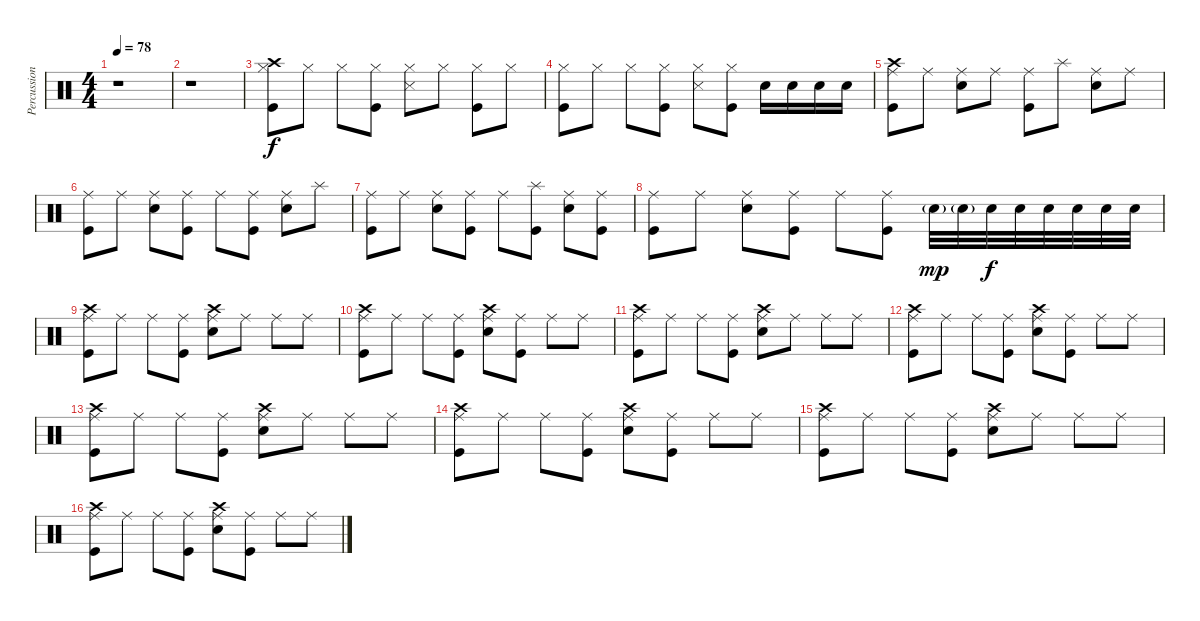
\track ("Percussion" "Percussion") {instrument percussion}
\staff {score}
\articulation defaults
\ts (4 4)
\tempo 78
\clef neutral
\ks c
r.1{dy f} |
r.1 |
("Crash high (hit)" "Hi-Hat (closed)" "Kick (hit)").8 "Hi-Hat (closed)".8 "Hi-Hat (closed)".8 ("Hi-Hat (closed)" "Kick (hit)").8 ("Hi-Hat (closed)" "Snare (side stick) 3").8 "Hi-Hat (closed)".8 ("Hi-Hat (closed)" "Kick (hit)").8 "Hi-Hat (closed)".8 |
("Hi-Hat (closed)" "Kick (hit)").8 "Hi-Hat (closed)".8 "Hi-Hat (closed)".8 ("Hi-Hat (closed)" "Kick (hit)").8 ("Hi-Hat (closed)" "Snare (side stick) 3").8 ("Hi-Hat (closed)" "Kick (hit)").8 "Snare (hit) 2".16 "Snare (hit) 2".16 "Snare (hit) 2".16 "Snare (hit) 2".16 |
("Crash high (hit)" "Ride (middle)" "Kick (hit)").8 "Ride (middle)".8 ("Ride (middle)" "Snare (hit) 2").8 "Ride (middle)".8 ("Ride (middle)" "Kick (hit)").8 "Splash (hit)".8 ("Ride (middle)" "Snare (hit) 2").8 "Ride (middle)".8 |
("Ride (middle)" "Kick (hit)").8 "Ride (middle)".8 ("Ride (middle)" "Snare (hit) 2").8 ("Ride (middle)" "Kick (hit)").8 "Ride (middle)".8 ("Ride (middle)" "Kick (hit)").8 ("Ride (middle)" "Snare (hit) 2").8 "Splash (hit)".8 |
("Ride (middle)" "Kick (hit)").8 "Ride (middle)".8 ("Ride (middle)" "Snare (hit) 2").8 ("Ride (middle)" "Kick (hit)").8 "Ride (middle)".8 ("Splash (hit)" "Kick (hit)").8 ("Ride (middle)" "Snare (hit) 2").8 ("Ride (middle)" "Kick (hit)").8 |
("Ride (middle)" "Kick (hit)").8 "Ride (middle)".8 ("Ride (middle)" "Snare (hit) 2").8 ("Ride (middle)" "Kick (hit)").8 "Ride (middle)".8 ("Ride (middle)" "Kick (hit)").8 "Snare (hit) 2"{g}.32{dy mp} "Snare (hit) 2"{g}.32 "Snare (hit) 2".32{dy f} "Snare (hit) 2".32 "Snare (hit) 2".32 "Snare (hit) 2".32 "Snare (hit) 2".32 "Snare (hit) 2".32 |
("Crash high (hit)" "Ride (middle)" "Kick (hit)").8 "Ride (middle)".8 "Ride (middle)".8 ("Ride (middle)" "Kick (hit)").8 ("Crash high (hit)" "Ride (middle)" "Snare (hit) 2").8 "Ride (middle)".8 "Ride (middle)".8 "Ride (middle)".8 |
("Crash high (hit)" "Ride (middle)" "Kick (hit)").8 "Ride (middle)".8 "Ride (middle)".8 ("Ride (middle)" "Kick (hit)").8 ("Crash high (hit)" "Ride (middle)" "Snare (hit) 2").8 ("Ride (middle)" "Kick (hit)").8 "Ride (middle)".8 "Ride (middle)".8 |
("Crash high (hit)" "Ride (middle)" "Kick (hit)").8 "Ride (middle)".8 "Ride (middle)".8 ("Ride (middle)" "Kick (hit)").8 ("Crash high (hit)" "Ride (middle)" "Snare (hit) 2").8 "Ride (middle)".8 "Ride (middle)".8 "Ride (middle)".8 |
("Crash high (hit)" "Ride (middle)" "Kick (hit)").8 "Ride (middle)".8 "Ride (middle)".8 ("Ride (middle)" "Kick (hit)").8 ("Crash high (hit)" "Ride (middle)" "Snare (hit) 2").8 ("Ride (middle)" "Kick (hit)").8 "Ride (middle)".8 "Ride (middle)".8 |
("Crash high (hit)" "Ride (middle)" "Kick (hit)").8 "Ride (middle)".8 "Ride (middle)".8 ("Ride (middle)" "Kick (hit)").8 ("Crash high (hit)" "Ride (middle)" "Snare (hit) 2").8 "Ride (middle)".8 "Ride (middle)".8 "Ride (middle)".8 |
("Crash high (hit)" "Ride (middle)" "Kick (hit)").8 "Ride (middle)".8 "Ride (middle)".8 ("Ride (middle)" "Kick (hit)").8 ("Crash high (hit)" "Ride (middle)" "Snare (hit) 2").8 ("Ride (middle)" "Kick (hit)").8 "Ride (middle)".8 "Ride (middle)".8 |
("Crash high (hit)" "Ride (middle)" "Kick (hit)").8 "Ride (middle)".8 "Ride (middle)".8 ("Ride (middle)" "Kick (hit)").8 ("Crash high (hit)" "Ride (middle)" "Snare (hit) 2").8 "Ride (middle)".8 "Ride (middle)".8 "Ride (middle)".8 |
("Crash high (hit)" "Ride (middle)" "Kick (hit)").8 "Ride (middle)".8 "Ride (middle)".8 ("Ride (middle)" "Kick (hit)").8 ("Crash high (hit)" "Ride (middle)" "Snare (hit) 2").8 ("Ride (middle)" "Kick (hit)").8 "Ride (middle)".8 "Ride (middle)".8
